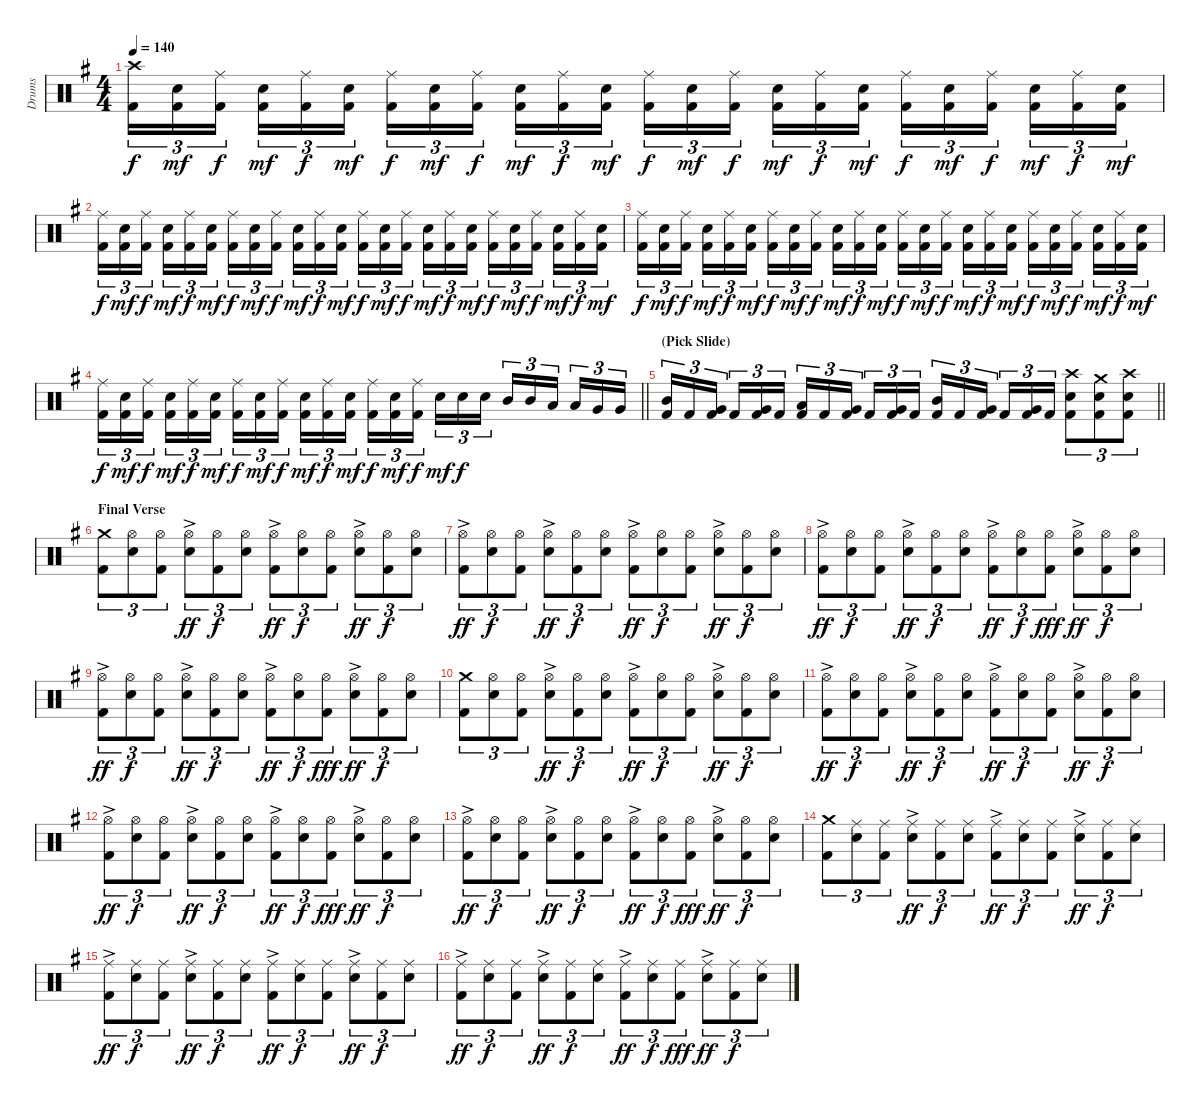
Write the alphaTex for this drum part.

\track ("Drums" "Drums") {instrument percussion}
\staff {score}
\articulation defaults
\ts (4 4)
\tempo 140
\clef neutral
\ks eminor
("Crash high (hit)" "Kick (hit) 2").16{tu (3 2) dy f} ("Electric Snare (hit)" "Kick (hit) 2").16{tu (3 2) dy mf} ("Ride (middle)" "Kick (hit) 2").16{tu (3 2) dy f beam splitsecondary} ("Electric Snare (hit)" "Kick (hit) 2").16{tu (3 2) dy mf} ("Ride (middle)" "Kick (hit) 2").16{tu (3 2) dy f} ("Electric Snare (hit)" "Kick (hit) 2").16{tu (3 2) dy mf} ("Ride (middle)" "Kick (hit) 2").16{tu (3 2) dy f} ("Electric Snare (hit)" "Kick (hit) 2").16{tu (3 2) dy mf} ("Ride (middle)" "Kick (hit) 2").16{tu (3 2) dy f beam splitsecondary} ("Electric Snare (hit)" "Kick (hit) 2").16{tu (3 2) dy mf} ("Ride (middle)" "Kick (hit) 2").16{tu (3 2) dy f} ("Electric Snare (hit)" "Kick (hit) 2").16{tu (3 2) dy mf} ("Ride (middle)" "Kick (hit) 2").16{tu (3 2) dy f} ("Electric Snare (hit)" "Kick (hit) 2").16{tu (3 2) dy mf} ("Ride (middle)" "Kick (hit) 2").16{tu (3 2) dy f beam splitsecondary} ("Electric Snare (hit)" "Kick (hit) 2").16{tu (3 2) dy mf} ("Ride (middle)" "Kick (hit) 2").16{tu (3 2) dy f} ("Electric Snare (hit)" "Kick (hit) 2").16{tu (3 2) dy mf} ("Ride (middle)" "Kick (hit) 2").16{tu (3 2) dy f} ("Electric Snare (hit)" "Kick (hit) 2").16{tu (3 2) dy mf} ("Ride (middle)" "Kick (hit) 2").16{tu (3 2) dy f beam splitsecondary} ("Electric Snare (hit)" "Kick (hit) 2").16{tu (3 2) dy mf} ("Ride (middle)" "Kick (hit) 2").16{tu (3 2) dy f} ("Electric Snare (hit)" "Kick (hit) 2").16{tu (3 2) dy mf} |
("Ride (middle)" "Kick (hit) 2").16{tu (3 2) dy f} ("Electric Snare (hit)" "Kick (hit) 2").16{tu (3 2) dy mf} ("Ride (middle)" "Kick (hit) 2").16{tu (3 2) dy f beam splitsecondary} ("Electric Snare (hit)" "Kick (hit) 2").16{tu (3 2) dy mf} ("Ride (middle)" "Kick (hit) 2").16{tu (3 2) dy f} ("Electric Snare (hit)" "Kick (hit) 2").16{tu (3 2) dy mf} ("Ride (middle)" "Kick (hit) 2").16{tu (3 2) dy f} ("Electric Snare (hit)" "Kick (hit) 2").16{tu (3 2) dy mf} ("Ride (middle)" "Kick (hit) 2").16{tu (3 2) dy f beam splitsecondary} ("Electric Snare (hit)" "Kick (hit) 2").16{tu (3 2) dy mf} ("Ride (middle)" "Kick (hit) 2").16{tu (3 2) dy f} ("Electric Snare (hit)" "Kick (hit) 2").16{tu (3 2) dy mf} ("Ride (middle)" "Kick (hit) 2").16{tu (3 2) dy f} ("Electric Snare (hit)" "Kick (hit) 2").16{tu (3 2) dy mf} ("Ride (middle)" "Kick (hit) 2").16{tu (3 2) dy f beam splitsecondary} ("Electric Snare (hit)" "Kick (hit) 2").16{tu (3 2) dy mf} ("Ride (middle)" "Kick (hit) 2").16{tu (3 2) dy f} ("Electric Snare (hit)" "Kick (hit) 2").16{tu (3 2) dy mf} ("Ride (middle)" "Kick (hit) 2").16{tu (3 2) dy f} ("Electric Snare (hit)" "Kick (hit) 2").16{tu (3 2) dy mf} ("Ride (middle)" "Kick (hit) 2").16{tu (3 2) dy f beam splitsecondary} ("Electric Snare (hit)" "Kick (hit) 2").16{tu (3 2) dy mf} ("Ride (middle)" "Kick (hit) 2").16{tu (3 2) dy f} ("Electric Snare (hit)" "Kick (hit) 2").16{tu (3 2) dy mf} |
("Ride (middle)" "Kick (hit) 2").16{tu (3 2) dy f} ("Electric Snare (hit)" "Kick (hit) 2").16{tu (3 2) dy mf} ("Ride (middle)" "Kick (hit) 2").16{tu (3 2) dy f beam splitsecondary} ("Electric Snare (hit)" "Kick (hit) 2").16{tu (3 2) dy mf} ("Ride (middle)" "Kick (hit) 2").16{tu (3 2) dy f} ("Electric Snare (hit)" "Kick (hit) 2").16{tu (3 2) dy mf} ("Ride (middle)" "Kick (hit) 2").16{tu (3 2) dy f} ("Electric Snare (hit)" "Kick (hit) 2").16{tu (3 2) dy mf} ("Ride (middle)" "Kick (hit) 2").16{tu (3 2) dy f beam splitsecondary} ("Electric Snare (hit)" "Kick (hit) 2").16{tu (3 2) dy mf} ("Ride (middle)" "Kick (hit) 2").16{tu (3 2) dy f} ("Electric Snare (hit)" "Kick (hit) 2").16{tu (3 2) dy mf} ("Ride (middle)" "Kick (hit) 2").16{tu (3 2) dy f} ("Electric Snare (hit)" "Kick (hit) 2").16{tu (3 2) dy mf} ("Ride (middle)" "Kick (hit) 2").16{tu (3 2) dy f beam splitsecondary} ("Electric Snare (hit)" "Kick (hit) 2").16{tu (3 2) dy mf} ("Ride (middle)" "Kick (hit) 2").16{tu (3 2) dy f} ("Electric Snare (hit)" "Kick (hit) 2").16{tu (3 2) dy mf} ("Ride (middle)" "Kick (hit) 2").16{tu (3 2) dy f} ("Electric Snare (hit)" "Kick (hit) 2").16{tu (3 2) dy mf} ("Ride (middle)" "Kick (hit) 2").16{tu (3 2) dy f beam splitsecondary} ("Electric Snare (hit)" "Kick (hit) 2").16{tu (3 2) dy mf} ("Ride (middle)" "Kick (hit) 2").16{tu (3 2) dy f} ("Electric Snare (hit)" "Kick (hit) 2").16{tu (3 2) dy mf} |
\barLineRight lightlight
("Ride (middle)" "Kick (hit) 2").16{tu (3 2) dy f} ("Electric Snare (hit)" "Kick (hit) 2").16{tu (3 2) dy mf} ("Ride (middle)" "Kick (hit) 2").16{tu (3 2) dy f beam splitsecondary} ("Electric Snare (hit)" "Kick (hit) 2").16{tu (3 2) dy mf} ("Ride (middle)" "Kick (hit) 2").16{tu (3 2) dy f} ("Electric Snare (hit)" "Kick (hit) 2").16{tu (3 2) dy mf} ("Ride (middle)" "Kick (hit) 2").16{tu (3 2) dy f} ("Electric Snare (hit)" "Kick (hit) 2").16{tu (3 2) dy mf} ("Ride (middle)" "Kick (hit) 2").16{tu (3 2) dy f beam splitsecondary} ("Electric Snare (hit)" "Kick (hit) 2").16{tu (3 2) dy mf} ("Ride (middle)" "Kick (hit) 2").16{tu (3 2) dy f} ("Electric Snare (hit)" "Kick (hit) 2").16{tu (3 2) dy mf} ("Ride (middle)" "Kick (hit) 2").16{tu (3 2) dy f} ("Electric Snare (hit)" "Kick (hit) 2").16{tu (3 2) dy mf} ("Ride (middle)" "Kick (hit) 2").16{tu (3 2) dy f beam splitsecondary} "Electric Snare (hit)".16{tu (3 2) dy mf} "Electric Snare (hit)".16{tu (3 2) dy f} "Electric Snare (hit)".16{tu (3 2)} "Mid Tom (hit)".16{tu (3 2)} "Mid Tom (hit)".16{tu (3 2)} "Low Tom (hit)".16{tu (3 2) beam splitsecondary} "Low Tom (hit)".16{tu (3 2)} "Very Low Tom (hit)".16{tu (3 2)} "Very Low Tom (hit)".16{tu (3 2)} |
\section ("" "(Pick Slide)")
\barLineRight lightlight
("Kick (hit) 2" "Mid Tom (hit)").16{tu (3 2)} "Kick (hit) 2".16{tu (3 2)} ("Kick (hit) 2" "Very Low Tom (hit)").16{tu (3 2) beam splitsecondary} "Kick (hit) 2".16{tu (3 2)} ("Kick (hit) 2" "Very Low Tom (hit)").16{tu (3 2)} "Kick (hit) 2".16{tu (3 2)} ("Kick (hit) 2" "Low Tom (hit)").16{tu (3 2)} "Kick (hit) 2".16{tu (3 2)} ("Kick (hit) 2" "Very Low Tom (hit)").16{tu (3 2) beam splitsecondary} "Kick (hit) 2".16{tu (3 2)} ("Kick (hit) 2" "Very Low Tom (hit)").16{tu (3 2)} "Kick (hit) 2".16{tu (3 2)} ("Kick (hit) 2" "Mid Tom (hit)").16{tu (3 2)} "Kick (hit) 2".16{tu (3 2)} ("Kick (hit) 2" "Very Low Tom (hit)").16{tu (3 2) beam splitsecondary} "Kick (hit) 2".16{tu (3 2)} ("Kick (hit) 2" "Very Low Tom (hit)").16{tu (3 2)} "Kick (hit) 2".16{tu (3 2)} ("Kick (hit) 2" "Electric Snare (hit)" "Crash high (hit)").8{tu (3 2)} ("Kick (hit) 2" "Electric Snare (hit)" "Crash medium (hit)").8{tu (3 2)} ("Kick (hit) 2" "Electric Snare (hit)" "Crash high (hit)").8{tu (3 2)} |
\section ("" "Final Verse")
("Kick (hit) 2" "Crash medium (hit)").8{tu (3 2)} ("Electric Snare (hit)" "Hi-Hat (open)").8{tu (3 2)} ("Kick (hit) 2" "Hi-Hat (open)").8{tu (3 2)} ("Electric Snare (hit)" "Hi-Hat (open)"{ac}).8{tu (3 2) dy ff} ("Kick (hit) 2" "Hi-Hat (open)").8{tu (3 2) dy f} ("Electric Snare (hit)" "Hi-Hat (open)").8{tu (3 2)} ("Kick (hit) 2" "Hi-Hat (open)"{ac}).8{tu (3 2) dy ff} ("Electric Snare (hit)" "Hi-Hat (open)").8{tu (3 2) dy f} ("Kick (hit) 2" "Hi-Hat (open)").8{tu (3 2)} ("Electric Snare (hit)" "Hi-Hat (open)"{ac}).8{tu (3 2) dy ff} ("Kick (hit) 2" "Hi-Hat (open)").8{tu (3 2) dy f} ("Electric Snare (hit)" "Hi-Hat (open)").8{tu (3 2)} |
("Kick (hit) 2" "Hi-Hat (open)"{ac}).8{tu (3 2) dy ff} ("Electric Snare (hit)" "Hi-Hat (open)").8{tu (3 2) dy f} ("Kick (hit) 2" "Hi-Hat (open)").8{tu (3 2)} ("Electric Snare (hit)" "Hi-Hat (open)"{ac}).8{tu (3 2) dy ff} ("Kick (hit) 2" "Hi-Hat (open)").8{tu (3 2) dy f} ("Electric Snare (hit)" "Hi-Hat (open)").8{tu (3 2)} ("Kick (hit) 2" "Hi-Hat (open)"{ac}).8{tu (3 2) dy ff} ("Electric Snare (hit)" "Hi-Hat (open)").8{tu (3 2) dy f} ("Kick (hit) 2" "Hi-Hat (open)").8{tu (3 2)} ("Electric Snare (hit)" "Hi-Hat (open)"{ac}).8{tu (3 2) dy ff} ("Kick (hit) 2" "Hi-Hat (open)").8{tu (3 2) dy f} ("Electric Snare (hit)" "Hi-Hat (open)").8{tu (3 2)} |
("Kick (hit) 2" "Hi-Hat (open)"{ac}).8{tu (3 2) dy ff} ("Electric Snare (hit)" "Hi-Hat (open)").8{tu (3 2) dy f} ("Kick (hit) 2" "Hi-Hat (open)").8{tu (3 2)} ("Electric Snare (hit)" "Hi-Hat (open)"{ac}).8{tu (3 2) dy ff} ("Kick (hit) 2" "Hi-Hat (open)").8{tu (3 2) dy f} ("Electric Snare (hit)" "Hi-Hat (open)").8{tu (3 2)} ("Kick (hit) 2" "Hi-Hat (open)"{ac}).8{tu (3 2) dy ff} ("Electric Snare (hit)" "Hi-Hat (open)").8{tu (3 2) dy f} ("Kick (hit) 2" "Hi-Hat (open)").8{tu (3 2) dy fff} ("Electric Snare (hit)" "Hi-Hat (open)"{ac}).8{tu (3 2) dy ff} ("Kick (hit) 2" "Hi-Hat (open)").8{tu (3 2) dy f} ("Electric Snare (hit)" "Hi-Hat (open)").8{tu (3 2)} |
("Kick (hit) 2" "Hi-Hat (open)"{ac}).8{tu (3 2) dy ff} ("Electric Snare (hit)" "Hi-Hat (open)").8{tu (3 2) dy f} ("Kick (hit) 2" "Hi-Hat (open)").8{tu (3 2)} ("Electric Snare (hit)" "Hi-Hat (open)"{ac}).8{tu (3 2) dy ff} ("Kick (hit) 2" "Hi-Hat (open)").8{tu (3 2) dy f} ("Electric Snare (hit)" "Hi-Hat (open)").8{tu (3 2)} ("Kick (hit) 2" "Hi-Hat (open)"{ac}).8{tu (3 2) dy ff} ("Electric Snare (hit)" "Hi-Hat (open)").8{tu (3 2) dy f} ("Kick (hit) 2" "Hi-Hat (open)").8{tu (3 2) dy fff} ("Electric Snare (hit)" "Hi-Hat (open)"{ac}).8{tu (3 2) dy ff} ("Kick (hit) 2" "Hi-Hat (open)").8{tu (3 2) dy f} ("Electric Snare (hit)" "Hi-Hat (open)").8{tu (3 2)} |
("Kick (hit) 2" "Crash medium (hit)").8{tu (3 2)} ("Electric Snare (hit)" "Hi-Hat (open)").8{tu (3 2)} ("Kick (hit) 2" "Hi-Hat (open)").8{tu (3 2)} ("Electric Snare (hit)" "Hi-Hat (open)"{ac}).8{tu (3 2) dy ff} ("Kick (hit) 2" "Hi-Hat (open)").8{tu (3 2) dy f} ("Electric Snare (hit)" "Hi-Hat (open)").8{tu (3 2)} ("Kick (hit) 2" "Hi-Hat (open)"{ac}).8{tu (3 2) dy ff} ("Electric Snare (hit)" "Hi-Hat (open)").8{tu (3 2) dy f} ("Kick (hit) 2" "Hi-Hat (open)").8{tu (3 2)} ("Electric Snare (hit)" "Hi-Hat (open)"{ac}).8{tu (3 2) dy ff} ("Kick (hit) 2" "Hi-Hat (open)").8{tu (3 2) dy f} ("Electric Snare (hit)" "Hi-Hat (open)").8{tu (3 2)} |
("Kick (hit) 2" "Hi-Hat (open)"{ac}).8{tu (3 2) dy ff} ("Electric Snare (hit)" "Hi-Hat (open)").8{tu (3 2) dy f} ("Kick (hit) 2" "Hi-Hat (open)").8{tu (3 2)} ("Electric Snare (hit)" "Hi-Hat (open)"{ac}).8{tu (3 2) dy ff} ("Kick (hit) 2" "Hi-Hat (open)").8{tu (3 2) dy f} ("Electric Snare (hit)" "Hi-Hat (open)").8{tu (3 2)} ("Kick (hit) 2" "Hi-Hat (open)"{ac}).8{tu (3 2) dy ff} ("Electric Snare (hit)" "Hi-Hat (open)").8{tu (3 2) dy f} ("Kick (hit) 2" "Hi-Hat (open)").8{tu (3 2)} ("Electric Snare (hit)" "Hi-Hat (open)"{ac}).8{tu (3 2) dy ff} ("Kick (hit) 2" "Hi-Hat (open)").8{tu (3 2) dy f} ("Electric Snare (hit)" "Hi-Hat (open)").8{tu (3 2)} |
("Kick (hit) 2" "Hi-Hat (open)"{ac}).8{tu (3 2) dy ff} ("Electric Snare (hit)" "Hi-Hat (open)").8{tu (3 2) dy f} ("Kick (hit) 2" "Hi-Hat (open)").8{tu (3 2)} ("Electric Snare (hit)" "Hi-Hat (open)"{ac}).8{tu (3 2) dy ff} ("Kick (hit) 2" "Hi-Hat (open)").8{tu (3 2) dy f} ("Electric Snare (hit)" "Hi-Hat (open)").8{tu (3 2)} ("Kick (hit) 2" "Hi-Hat (open)"{ac}).8{tu (3 2) dy ff} ("Electric Snare (hit)" "Hi-Hat (open)").8{tu (3 2) dy f} ("Kick (hit) 2" "Hi-Hat (open)").8{tu (3 2) dy fff} ("Electric Snare (hit)" "Hi-Hat (open)"{ac}).8{tu (3 2) dy ff} ("Kick (hit) 2" "Hi-Hat (open)").8{tu (3 2) dy f} ("Electric Snare (hit)" "Hi-Hat (open)").8{tu (3 2)} |
("Kick (hit) 2" "Hi-Hat (open)"{ac}).8{tu (3 2) dy ff} ("Electric Snare (hit)" "Hi-Hat (open)").8{tu (3 2) dy f} ("Kick (hit) 2" "Hi-Hat (open)").8{tu (3 2)} ("Electric Snare (hit)" "Hi-Hat (open)"{ac}).8{tu (3 2) dy ff} ("Kick (hit) 2" "Hi-Hat (open)").8{tu (3 2) dy f} ("Electric Snare (hit)" "Hi-Hat (open)").8{tu (3 2)} ("Kick (hit) 2" "Hi-Hat (open)"{ac}).8{tu (3 2) dy ff} ("Electric Snare (hit)" "Hi-Hat (open)").8{tu (3 2) dy f} ("Kick (hit) 2" "Hi-Hat (open)").8{tu (3 2) dy fff} ("Electric Snare (hit)" "Hi-Hat (open)"{ac}).8{tu (3 2) dy ff} ("Kick (hit) 2" "Hi-Hat (open)").8{tu (3 2) dy f} ("Electric Snare (hit)" "Hi-Hat (open)").8{tu (3 2)} |
("Kick (hit) 2" "Crash medium (hit)").8{tu (3 2)} ("Electric Snare (hit)" "Ride (middle)").8{tu (3 2)} ("Kick (hit) 2" "Ride (middle)").8{tu (3 2)} ("Electric Snare (hit)" "Ride (middle)"{ac}).8{tu (3 2) dy ff} ("Kick (hit) 2" "Ride (middle)").8{tu (3 2) dy f} ("Electric Snare (hit)" "Ride (middle)").8{tu (3 2)} ("Kick (hit) 2" "Ride (middle)"{ac}).8{tu (3 2) dy ff} ("Electric Snare (hit)" "Ride (middle)").8{tu (3 2) dy f} ("Kick (hit) 2" "Ride (middle)").8{tu (3 2)} ("Electric Snare (hit)" "Ride (middle)"{ac}).8{tu (3 2) dy ff} ("Kick (hit) 2" "Ride (middle)").8{tu (3 2) dy f} ("Electric Snare (hit)" "Ride (middle)").8{tu (3 2)} |
("Kick (hit) 2" "Ride (middle)"{ac}).8{tu (3 2) dy ff} ("Electric Snare (hit)" "Ride (middle)").8{tu (3 2) dy f} ("Kick (hit) 2" "Ride (middle)").8{tu (3 2)} ("Electric Snare (hit)" "Ride (middle)"{ac}).8{tu (3 2) dy ff} ("Kick (hit) 2" "Ride (middle)").8{tu (3 2) dy f} ("Electric Snare (hit)" "Ride (middle)").8{tu (3 2)} ("Kick (hit) 2" "Ride (middle)"{ac}).8{tu (3 2) dy ff} ("Electric Snare (hit)" "Ride (middle)").8{tu (3 2) dy f} ("Kick (hit) 2" "Ride (middle)").8{tu (3 2)} ("Electric Snare (hit)" "Ride (middle)"{ac}).8{tu (3 2) dy ff} ("Kick (hit) 2" "Ride (middle)").8{tu (3 2) dy f} ("Electric Snare (hit)" "Ride (middle)").8{tu (3 2)} |
("Kick (hit) 2" "Ride (middle)"{ac}).8{tu (3 2) dy ff} ("Electric Snare (hit)" "Ride (middle)").8{tu (3 2) dy f} ("Kick (hit) 2" "Ride (middle)").8{tu (3 2)} ("Electric Snare (hit)" "Ride (middle)"{ac}).8{tu (3 2) dy ff} ("Kick (hit) 2" "Ride (middle)").8{tu (3 2) dy f} ("Electric Snare (hit)" "Ride (middle)").8{tu (3 2)} ("Kick (hit) 2" "Ride (middle)"{ac}).8{tu (3 2) dy ff} ("Electric Snare (hit)" "Ride (middle)").8{tu (3 2) dy f} ("Kick (hit) 2" "Ride (middle)").8{tu (3 2) dy fff} ("Electric Snare (hit)" "Ride (middle)"{ac}).8{tu (3 2) dy ff} ("Kick (hit) 2" "Ride (middle)").8{tu (3 2) dy f} ("Electric Snare (hit)" "Ride (middle)").8{tu (3 2)}
